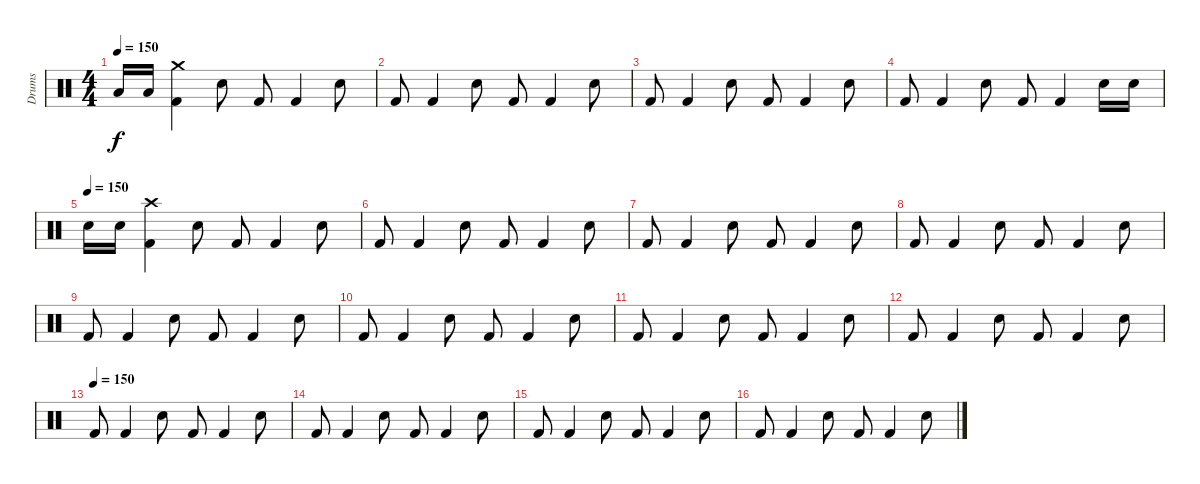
\track ("Drums" "Drums") {instrument percussion}
\staff {score}
\articulation defaults
\ts (4 4)
\tempo 150
\clef neutral
\ks c "Low Tom (hit)".16{dy f} "Low Floor Tom (hit)".16
("Crash medium (hit)" "Kick (hit) 2").4 "Snare (hit) 2".8 "Kick (hit) 2".8 "Kick (hit) 2".4 "Snare (hit) 2".8 |
"Kick (hit) 2".8 "Kick (hit) 2".4 "Snare (hit) 2".8 "Kick (hit) 2".8 "Kick (hit) 2".4 "Snare (hit) 2".8 |
"Kick (hit) 2".8 "Kick (hit) 2".4 "Snare (hit) 2".8 "Kick (hit) 2".8 "Kick (hit) 2".4 "Snare (hit) 2".8 |
"Kick (hit) 2".8 "Kick (hit) 2".4 "Snare (hit) 2".8 "Kick (hit) 2".8 "Kick (hit) 2".4 "Snare (hit) 2".16 "Snare (hit) 2".16 |
\tempo (150)
"Snare (hit) 2".16 "Snare (hit) 2".16 ("Crash high (hit)" "Kick (hit) 2").4 "Snare (hit) 2".8 "Kick (hit) 2".8 "Kick (hit) 2".4 "Snare (hit) 2".8 |
"Kick (hit) 2".8 "Kick (hit) 2".4 "Snare (hit) 2".8 "Kick (hit) 2".8 "Kick (hit) 2".4 "Snare (hit) 2".8 |
"Kick (hit) 2".8 "Kick (hit) 2".4 "Snare (hit) 2".8 "Kick (hit) 2".8 "Kick (hit) 2".4 "Snare (hit) 2".8 |
"Kick (hit) 2".8 "Kick (hit) 2".4 "Snare (hit) 2".8 "Kick (hit) 2".8 "Kick (hit) 2".4 "Snare (hit) 2".8 |
"Kick (hit) 2".8 "Kick (hit) 2".4 "Snare (hit) 2".8 "Kick (hit) 2".8 "Kick (hit) 2".4 "Snare (hit) 2".8 |
"Kick (hit) 2".8 "Kick (hit) 2".4 "Snare (hit) 2".8 "Kick (hit) 2".8 "Kick (hit) 2".4 "Snare (hit) 2".8 |
"Kick (hit) 2".8 "Kick (hit) 2".4 "Snare (hit) 2".8 "Kick (hit) 2".8 "Kick (hit) 2".4 "Snare (hit) 2".8 |
"Kick (hit) 2".8 "Kick (hit) 2".4 "Snare (hit) 2".8 "Kick (hit) 2".8 "Kick (hit) 2".4 "Snare (hit) 2".8 |
\tempo (150)
"Kick (hit) 2".8 "Kick (hit) 2".4 "Snare (hit) 2".8 "Kick (hit) 2".8 "Kick (hit) 2".4 "Snare (hit) 2".8 |
"Kick (hit) 2".8 "Kick (hit) 2".4 "Snare (hit) 2".8 "Kick (hit) 2".8 "Kick (hit) 2".4 "Snare (hit) 2".8 |
"Kick (hit) 2".8 "Kick (hit) 2".4 "Snare (hit) 2".8 "Kick (hit) 2".8 "Kick (hit) 2".4 "Snare (hit) 2".8 |
"Kick (hit) 2".8 "Kick (hit) 2".4 "Snare (hit) 2".8 "Kick (hit) 2".8 "Kick (hit) 2".4 "Snare (hit) 2".8
